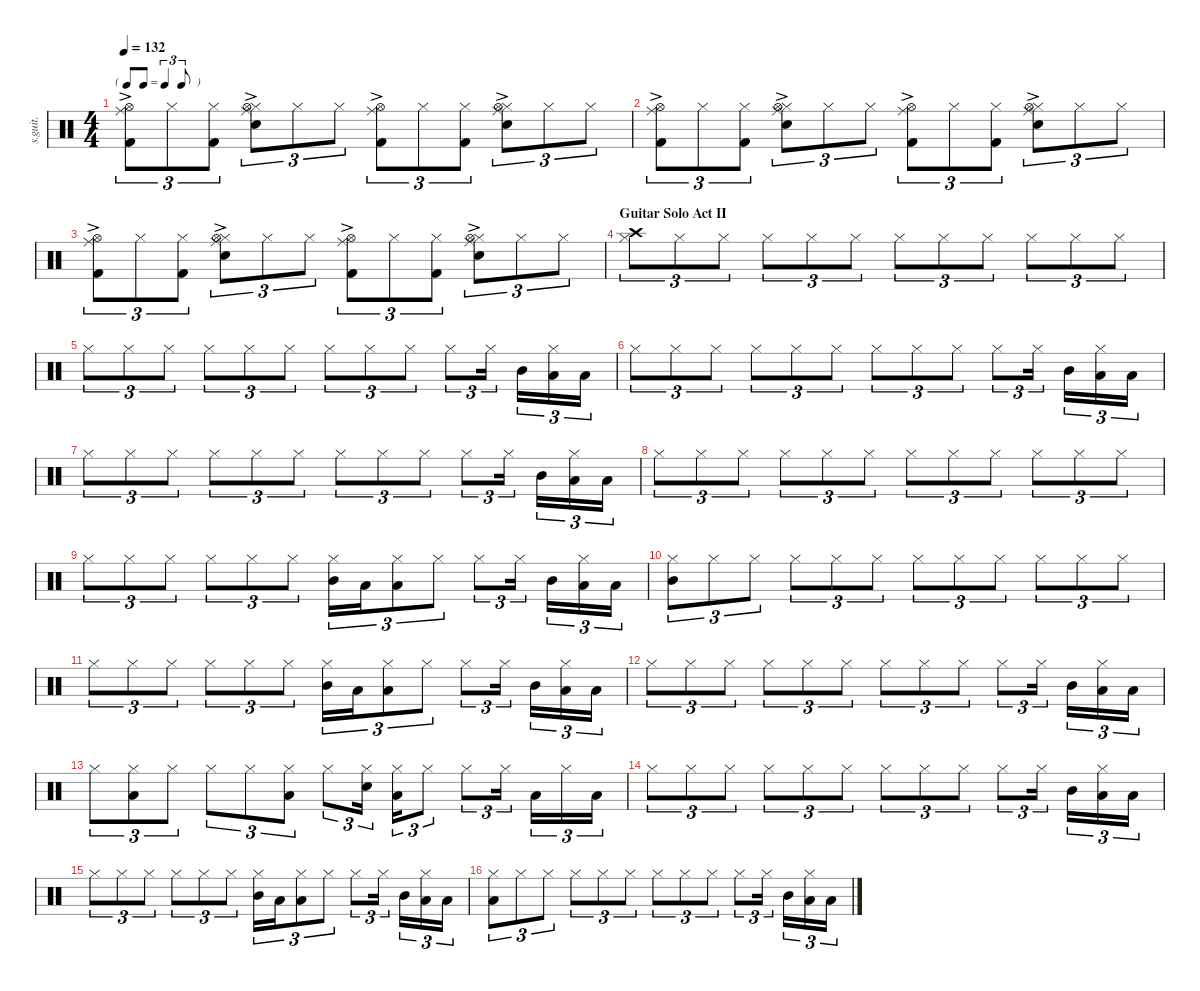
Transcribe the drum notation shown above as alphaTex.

\defaultSystemsLayout 4
\hideDynamics
\bracketExtendMode nobrackets
\track ("Nick Mason | Ludwig Drumkit | Drums" "s.guit.") {instrument percussion}
\staff {score}
\articulation defaults
\ts (4 4)
\tf triplet8th
\tempo 132
\clef neutral
\ks c
("Hi-Hat (open)"{ac} "Ride (middle)" "Kick (hit) 2").8{tu (3 2) dy f} "Hi-Hat (closed)".8{tu (3 2) dy mf} ("Hi-Hat (closed)" "Kick (hit) 2").8{tu (3 2)} ("Hi-Hat (closed)"{ac} "Hi-Hat (open)" "Ride (middle)" "Snare (hit) 2").8{tu (3 2) dy f} "Hi-Hat (closed)".8{tu (3 2)} "Hi-Hat (closed)".8{tu (3 2)} ("Hi-Hat (open)"{ac} "Ride (middle)" "Kick (hit) 2").8{tu (3 2)} "Hi-Hat (closed)".8{tu (3 2) dy mf} ("Hi-Hat (closed)" "Kick (hit) 2").8{tu (3 2)} ("Hi-Hat (closed)"{ac} "Hi-Hat (open)" "Ride (middle)" "Snare (hit) 2").8{tu (3 2) dy f} "Hi-Hat (closed)".8{tu (3 2)} "Hi-Hat (closed)".8{tu (3 2)} |
("Hi-Hat (open)"{ac} "Ride (middle)" "Kick (hit) 2").8{tu (3 2)} "Hi-Hat (closed)".8{tu (3 2) dy mf} ("Hi-Hat (closed)" "Kick (hit) 2").8{tu (3 2)} ("Hi-Hat (closed)"{ac} "Hi-Hat (open)" "Ride (middle)" "Snare (hit) 2").8{tu (3 2) dy f} "Hi-Hat (closed)".8{tu (3 2)} "Hi-Hat (closed)".8{tu (3 2)} ("Hi-Hat (open)"{ac} "Ride (middle)" "Kick (hit) 2").8{tu (3 2)} "Hi-Hat (closed)".8{tu (3 2) dy mf} ("Hi-Hat (closed)" "Kick (hit) 2").8{tu (3 2)} ("Hi-Hat (closed)"{ac} "Hi-Hat (open)" "Ride (middle)" "Snare (hit) 2").8{tu (3 2) dy f} "Hi-Hat (closed)".8{tu (3 2)} "Hi-Hat (closed)".8{tu (3 2)} |
("Hi-Hat (open)"{ac} "Ride (middle)" "Kick (hit) 2").8{tu (3 2)} "Hi-Hat (closed)".8{tu (3 2) dy mf} ("Hi-Hat (closed)" "Kick (hit) 2").8{tu (3 2)} ("Hi-Hat (closed)"{ac} "Hi-Hat (open)" "Ride (middle)" "Snare (hit) 2").8{tu (3 2) dy f} "Hi-Hat (closed)".8{tu (3 2)} "Hi-Hat (closed)".8{tu (3 2)} ("Hi-Hat (open)"{ac} "Ride (middle)" "Kick (hit) 2").8{tu (3 2)} "Hi-Hat (closed)".8{tu (3 2) dy mf} ("Hi-Hat (closed)" "Kick (hit) 2").8{tu (3 2)} ("Hi-Hat (closed)"{ac} "Hi-Hat (open)" "Ride (middle)" "Snare (hit) 2").8{tu (3 2) dy f} "Hi-Hat (closed)".8{tu (3 2)} "Hi-Hat (closed)".8{tu (3 2)} |
\section ("" "Guitar Solo Act II")
("Crash high (hit)" "Hi-Hat (closed)").8{tu (3 2)} "Hi-Hat (closed)".8{tu (3 2)} "Hi-Hat (closed)".8{tu (3 2)} "Hi-Hat (closed)".8{tu (3 2)} "Hi-Hat (closed)".8{tu (3 2)} "Hi-Hat (closed)".8{tu (3 2)} "Hi-Hat (closed)".8{tu (3 2)} "Hi-Hat (closed)".8{tu (3 2)} "Hi-Hat (closed)".8{tu (3 2)} "Hi-Hat (closed)".8{tu (3 2)} "Hi-Hat (closed)".8{tu (3 2)} "Hi-Hat (closed)".8{tu (3 2)} |
"Hi-Hat (closed)".8{tu (3 2)} "Hi-Hat (closed)".8{tu (3 2)} "Hi-Hat (closed)".8{tu (3 2)} "Hi-Hat (closed)".8{tu (3 2)} "Hi-Hat (closed)".8{tu (3 2)} "Hi-Hat (closed)".8{tu (3 2)} "Hi-Hat (closed)".8{tu (3 2)} "Hi-Hat (closed)".8{tu (3 2)} "Hi-Hat (closed)".8{tu (3 2)} "Hi-Hat (closed)".8{tu (3 2)} "Hi-Hat (closed)".16{tu (3 2)} "Mid Tom (hit)".16{tu (3 2)} ("Hi-Hat (closed)" "Low Floor Tom (hit)").16{tu (3 2)} "Low Floor Tom (hit)".16{tu (3 2)} |
"Hi-Hat (closed)".8{tu (3 2)} "Hi-Hat (closed)".8{tu (3 2)} "Hi-Hat (closed)".8{tu (3 2)} "Hi-Hat (closed)".8{tu (3 2)} "Hi-Hat (closed)".8{tu (3 2)} "Hi-Hat (closed)".8{tu (3 2)} "Hi-Hat (closed)".8{tu (3 2)} "Hi-Hat (closed)".8{tu (3 2)} "Hi-Hat (closed)".8{tu (3 2)} "Hi-Hat (closed)".8{tu (3 2)} "Hi-Hat (closed)".16{tu (3 2)} "Mid Tom (hit)".16{tu (3 2)} ("Hi-Hat (closed)" "Low Floor Tom (hit)").16{tu (3 2)} "Low Floor Tom (hit)".16{tu (3 2)} |
"Hi-Hat (closed)".8{tu (3 2)} "Hi-Hat (closed)".8{tu (3 2)} "Hi-Hat (closed)".8{tu (3 2)} "Hi-Hat (closed)".8{tu (3 2)} "Hi-Hat (closed)".8{tu (3 2)} "Hi-Hat (closed)".8{tu (3 2)} "Hi-Hat (closed)".8{tu (3 2)} "Hi-Hat (closed)".8{tu (3 2)} "Hi-Hat (closed)".8{tu (3 2)} "Hi-Hat (closed)".8{tu (3 2)} "Hi-Hat (closed)".16{tu (3 2)} "Mid Tom (hit)".16{tu (3 2)} ("Hi-Hat (closed)" "Low Floor Tom (hit)").16{tu (3 2)} "Low Floor Tom (hit)".16{tu (3 2)} |
"Hi-Hat (closed)".8{tu (3 2)} "Hi-Hat (closed)".8{tu (3 2)} "Hi-Hat (closed)".8{tu (3 2)} "Hi-Hat (closed)".8{tu (3 2)} "Hi-Hat (closed)".8{tu (3 2)} "Hi-Hat (closed)".8{tu (3 2)} "Hi-Hat (closed)".8{tu (3 2)} "Hi-Hat (closed)".8{tu (3 2)} "Hi-Hat (closed)".8{tu (3 2)} "Hi-Hat (closed)".8{tu (3 2)} "Hi-Hat (closed)".8{tu (3 2)} "Hi-Hat (closed)".8{tu (3 2)} |
"Hi-Hat (closed)".8{tu (3 2)} "Hi-Hat (closed)".8{tu (3 2)} "Hi-Hat (closed)".8{tu (3 2)} "Hi-Hat (closed)".8{tu (3 2)} "Hi-Hat (closed)".8{tu (3 2)} "Hi-Hat (closed)".8{tu (3 2)} ("Hi-Hat (closed)" "Mid Tom (hit)").16{tu (3 2)} "Low Floor Tom (hit)".16{tu (3 2)} ("Hi-Hat (closed)" "Low Floor Tom (hit)").8{tu (3 2)} "Hi-Hat (closed)".8{tu (3 2)} "Hi-Hat (closed)".8{tu (3 2)} "Hi-Hat (closed)".16{tu (3 2)} "Mid Tom (hit)".16{tu (3 2)} ("Hi-Hat (closed)" "Low Floor Tom (hit)").16{tu (3 2)} "Low Floor Tom (hit)".16{tu (3 2)} |
("Hi-Hat (closed)" "Mid Tom (hit)").8{tu (3 2)} "Hi-Hat (closed)".8{tu (3 2)} "Hi-Hat (closed)".8{tu (3 2)} "Hi-Hat (closed)".8{tu (3 2)} "Hi-Hat (closed)".8{tu (3 2)} "Hi-Hat (closed)".8{tu (3 2)} "Hi-Hat (closed)".8{tu (3 2)} "Hi-Hat (closed)".8{tu (3 2)} "Hi-Hat (closed)".8{tu (3 2)} "Hi-Hat (closed)".8{tu (3 2)} "Hi-Hat (closed)".8{tu (3 2)} "Hi-Hat (closed)".8{tu (3 2)} |
"Hi-Hat (closed)".8{tu (3 2)} "Hi-Hat (closed)".8{tu (3 2)} "Hi-Hat (closed)".8{tu (3 2)} "Hi-Hat (closed)".8{tu (3 2)} "Hi-Hat (closed)".8{tu (3 2)} "Hi-Hat (closed)".8{tu (3 2)} ("Hi-Hat (closed)" "Mid Tom (hit)").16{tu (3 2)} "Low Floor Tom (hit)".16{tu (3 2)} ("Hi-Hat (closed)" "Low Floor Tom (hit)").8{tu (3 2)} "Hi-Hat (closed)".8{tu (3 2)} "Hi-Hat (closed)".8{tu (3 2)} "Hi-Hat (closed)".16{tu (3 2)} "Mid Tom (hit)".16{tu (3 2)} ("Hi-Hat (closed)" "Low Floor Tom (hit)").16{tu (3 2)} "Low Floor Tom (hit)".16{tu (3 2)} |
"Hi-Hat (closed)".8{tu (3 2)} "Hi-Hat (closed)".8{tu (3 2)} "Hi-Hat (closed)".8{tu (3 2)} "Hi-Hat (closed)".8{tu (3 2)} "Hi-Hat (closed)".8{tu (3 2)} "Hi-Hat (closed)".8{tu (3 2)} "Hi-Hat (closed)".8{tu (3 2)} "Hi-Hat (closed)".8{tu (3 2)} "Hi-Hat (closed)".8{tu (3 2)} "Hi-Hat (closed)".8{tu (3 2)} "Hi-Hat (closed)".16{tu (3 2)} "Mid Tom (hit)".16{tu (3 2)} ("Hi-Hat (closed)" "Low Floor Tom (hit)").16{tu (3 2)} "Low Floor Tom (hit)".16{tu (3 2)} |
"Hi-Hat (closed)".8{tu (3 2)} ("Hi-Hat (closed)" "Low Floor Tom (hit)").8{tu (3 2)} "Hi-Hat (closed)".8{tu (3 2)} "Hi-Hat (closed)".8{tu (3 2)} "Hi-Hat (closed)".8{tu (3 2)} ("Hi-Hat (closed)" "Low Floor Tom (hit)").8{tu (3 2)} "Hi-Hat (closed)".8{tu (3 2)} ("Hi-Hat (closed)" "Snare (hit) 2").16{tu (3 2)} ("Hi-Hat (closed)" "Low Floor Tom (hit)").16{tu (3 2)} "Hi-Hat (closed)".8{tu (3 2)} "Hi-Hat (closed)".8{tu (3 2)} "Hi-Hat (closed)".16{tu (3 2)} "Low Floor Tom (hit)".16{tu (3 2)} "Hi-Hat (closed)".16{tu (3 2)} "Low Floor Tom (hit)".16{tu (3 2)} |
"Hi-Hat (closed)".8{tu (3 2)} "Hi-Hat (closed)".8{tu (3 2)} "Hi-Hat (closed)".8{tu (3 2)} "Hi-Hat (closed)".8{tu (3 2)} "Hi-Hat (closed)".8{tu (3 2)} "Hi-Hat (closed)".8{tu (3 2)} "Hi-Hat (closed)".8{tu (3 2)} "Hi-Hat (closed)".8{tu (3 2)} "Hi-Hat (closed)".8{tu (3 2)} "Hi-Hat (closed)".8{tu (3 2)} "Hi-Hat (closed)".16{tu (3 2)} "Mid Tom (hit)".16{tu (3 2)} ("Hi-Hat (closed)" "Low Floor Tom (hit)").16{tu (3 2)} "Low Floor Tom (hit)".16{tu (3 2)} |
"Hi-Hat (closed)".8{tu (3 2)} "Hi-Hat (closed)".8{tu (3 2)} "Hi-Hat (closed)".8{tu (3 2)} "Hi-Hat (closed)".8{tu (3 2)} "Hi-Hat (closed)".8{tu (3 2)} "Hi-Hat (closed)".8{tu (3 2)} ("Hi-Hat (closed)" "Mid Tom (hit)").16{tu (3 2)} "Low Floor Tom (hit)".16{tu (3 2)} ("Hi-Hat (closed)" "Low Floor Tom (hit)").8{tu (3 2)} "Hi-Hat (closed)".8{tu (3 2)} "Hi-Hat (closed)".8{tu (3 2)} "Hi-Hat (closed)".16{tu (3 2)} "Mid Tom (hit)".16{tu (3 2)} ("Hi-Hat (closed)" "Low Floor Tom (hit)").16{tu (3 2)} "Low Floor Tom (hit)".16{tu (3 2)} |
("Hi-Hat (closed)" "Low Floor Tom (hit)").8{tu (3 2)} "Hi-Hat (closed)".8{tu (3 2)} "Hi-Hat (closed)".8{tu (3 2)} "Hi-Hat (closed)".8{tu (3 2)} "Hi-Hat (closed)".8{tu (3 2)} "Hi-Hat (closed)".8{tu (3 2)} "Hi-Hat (closed)".8{tu (3 2)} "Hi-Hat (closed)".8{tu (3 2)} "Hi-Hat (closed)".8{tu (3 2)} "Hi-Hat (closed)".8{tu (3 2)} "Hi-Hat (closed)".16{tu (3 2)} "Mid Tom (hit)".16{tu (3 2)} ("Hi-Hat (closed)" "Low Floor Tom (hit)").16{tu (3 2)} "Low Floor Tom (hit)".16{tu (3 2)}
